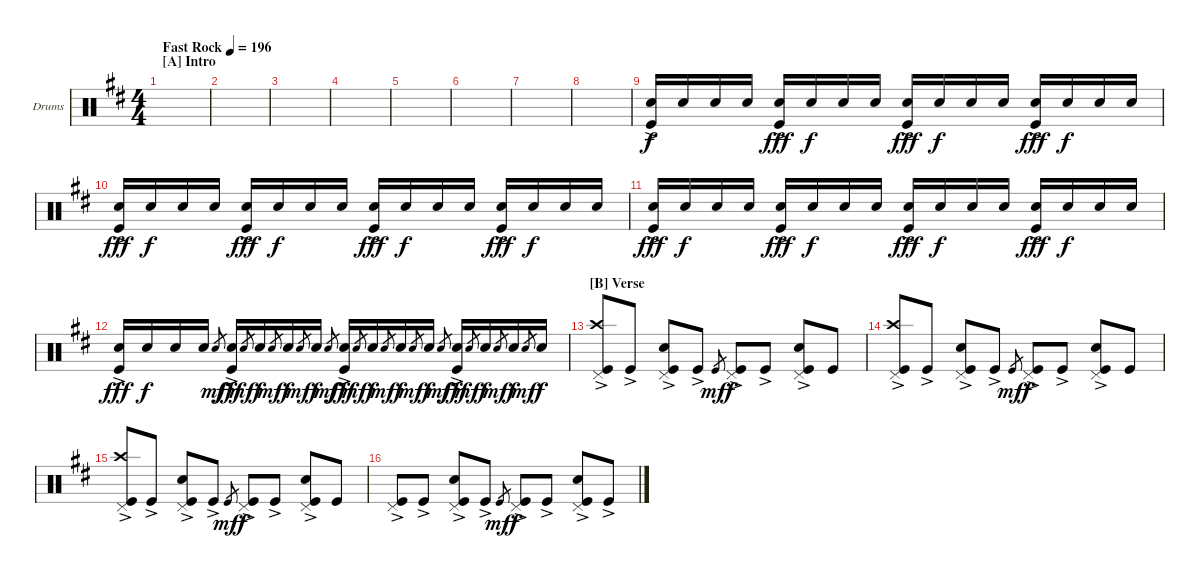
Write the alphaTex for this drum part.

\defaultSystemsLayout 4
\bracketExtendMode groupsimilarinstruments
\firstSystemTrackNameOrientation horizontal
\otherSystemsTrackNameOrientation horizontal
\track ("Drumkit" "Drums") {instrument percussion}
\staff {score}
\articulation defaults
\ts (4 4)
\section ("A" "Intro")
\tempo (196 "Fast Rock")
\clef neutral
\ks d
|
|
|
|
|
|
|
|
("Kick (hit)"{ac} "Snare (hit) 2").16 "Snare (hit) 2".16{dy f} "Snare (hit) 2".16 "Snare (hit) 2".16 ("Kick (hit)"{ac} "Snare (hit) 2").16{dy fff} "Snare (hit) 2".16{dy f} "Snare (hit) 2".16 "Snare (hit) 2".16 ("Kick (hit)"{ac} "Snare (hit) 2").16{dy fff} "Snare (hit) 2".16{dy f} "Snare (hit) 2".16 "Snare (hit) 2".16 ("Kick (hit)"{ac} "Snare (hit) 2").16{dy fff} "Snare (hit) 2".16{dy f} "Snare (hit) 2".16 "Snare (hit) 2".16 |
("Kick (hit)"{ac} "Snare (hit) 2").16{dy fff} "Snare (hit) 2".16{dy f} "Snare (hit) 2".16 "Snare (hit) 2".16 ("Kick (hit)"{ac} "Snare (hit) 2").16{dy fff} "Snare (hit) 2".16{dy f} "Snare (hit) 2".16 "Snare (hit) 2".16 ("Kick (hit)"{ac} "Snare (hit) 2").16{dy fff} "Snare (hit) 2".16{dy f} "Snare (hit) 2".16 "Snare (hit) 2".16 ("Kick (hit)"{ac} "Snare (hit) 2").16{dy fff} "Snare (hit) 2".16{dy f} "Snare (hit) 2".16 "Snare (hit) 2".16 |
("Kick (hit)"{ac} "Snare (hit) 2").16{dy fff} "Snare (hit) 2".16{dy f} "Snare (hit) 2".16 "Snare (hit) 2".16 ("Kick (hit)"{ac} "Snare (hit) 2").16{dy fff} "Snare (hit) 2".16{dy f} "Snare (hit) 2".16 "Snare (hit) 2".16 ("Kick (hit)"{ac} "Snare (hit) 2").16{dy fff} "Snare (hit) 2".16{dy f} "Snare (hit) 2".16 "Snare (hit) 2".16 ("Kick (hit)"{ac} "Snare (hit) 2").16{dy fff} "Snare (hit) 2".16{dy f} "Snare (hit) 2".16 "Snare (hit) 2".16 |
("Kick (hit)"{ac} "Snare (hit) 2").16{dy fff} "Snare (hit) 2".16{dy f} "Snare (hit) 2".16 "Snare (hit) 2".16 "Snare (hit) 2".8{gr dy mf} ("Kick (hit)"{ac} "Snare (hit) 2").16{dy fff} "Snare (hit) 2".8{gr dy mf} "Snare (hit) 2".16{dy f} "Snare (hit) 2".8{gr dy mf} "Snare (hit) 2".16{dy f} "Snare (hit) 2".8{gr dy mf} "Snare (hit) 2".16{dy f} "Snare (hit) 2".8{gr dy mf} ("Kick (hit)"{ac} "Snare (hit) 2").16{dy fff} "Snare (hit) 2".8{gr dy mf} "Snare (hit) 2".16{dy f} "Snare (hit) 2".8{gr dy mf} "Snare (hit) 2".16{dy f} "Snare (hit) 2".8{gr dy mf} "Snare (hit) 2".16{dy f} "Snare (hit) 2".8{gr dy mf} ("Kick (hit)"{ac} "Snare (hit) 2").16{dy fff} "Snare (hit) 2".8{gr dy mf} "Snare (hit) 2".16{dy f} "Snare (hit) 2".8{gr dy mf} "Snare (hit) 2".16{dy f} "Snare (hit) 2".8{gr dy mf} "Snare (hit) 2".16{dy f} |
\section ("B" "Verse")
("Crash high (hit)" "Pedal Hi-Hat (hit)" "Kick (hit)"{ac}).8 "Kick (hit)"{ac}.8 ("Pedal Hi-Hat (hit)" "Snare (hit) 2" "Kick (hit)"{ac}).8 "Kick (hit)"{ac}.8 "Kick (hit)".8{gr dy mf} ("Pedal Hi-Hat (hit)" "Kick (hit)"{ac}).8{dy f} "Kick (hit)"{ac}.8 ("Pedal Hi-Hat (hit)" "Snare (hit) 2" "Kick (hit)"{ac}).8 "Kick (hit)".8 |
("Crash high (hit)" "Pedal Hi-Hat (hit)" "Kick (hit)"{ac}).8 "Kick (hit)"{ac}.8 ("Pedal Hi-Hat (hit)" "Snare (hit) 2" "Kick (hit)"{ac}).8 "Kick (hit)"{ac}.8 "Kick (hit)".8{gr dy mf} ("Pedal Hi-Hat (hit)" "Kick (hit)"{ac}).8{dy f} "Kick (hit)"{ac}.8 ("Pedal Hi-Hat (hit)" "Snare (hit) 2" "Kick (hit)"{ac}).8 "Kick (hit)".8 |
("Crash high (hit)" "Pedal Hi-Hat (hit)" "Kick (hit)"{ac}).8 "Kick (hit)"{ac}.8 ("Pedal Hi-Hat (hit)" "Snare (hit) 2" "Kick (hit)"{ac}).8 "Kick (hit)"{ac}.8 "Kick (hit)".8{gr dy mf} ("Pedal Hi-Hat (hit)" "Kick (hit)"{ac}).8{dy f} "Kick (hit)"{ac}.8 ("Pedal Hi-Hat (hit)" "Snare (hit) 2" "Kick (hit)"{ac}).8 "Kick (hit)".8 |
("Pedal Hi-Hat (hit)" "Kick (hit)"{ac}).8 "Kick (hit)"{ac}.8 ("Pedal Hi-Hat (hit)" "Snare (hit) 2" "Kick (hit)"{ac}).8 "Kick (hit)"{ac}.8 "Kick (hit)".8{gr dy mf} ("Pedal Hi-Hat (hit)" "Kick (hit)"{ac}).8{dy f} "Kick (hit)"{ac}.8 ("Pedal Hi-Hat (hit)" "Snare (hit) 2" "Kick (hit)"{ac}).8 "Kick (hit)"{ac}.8
